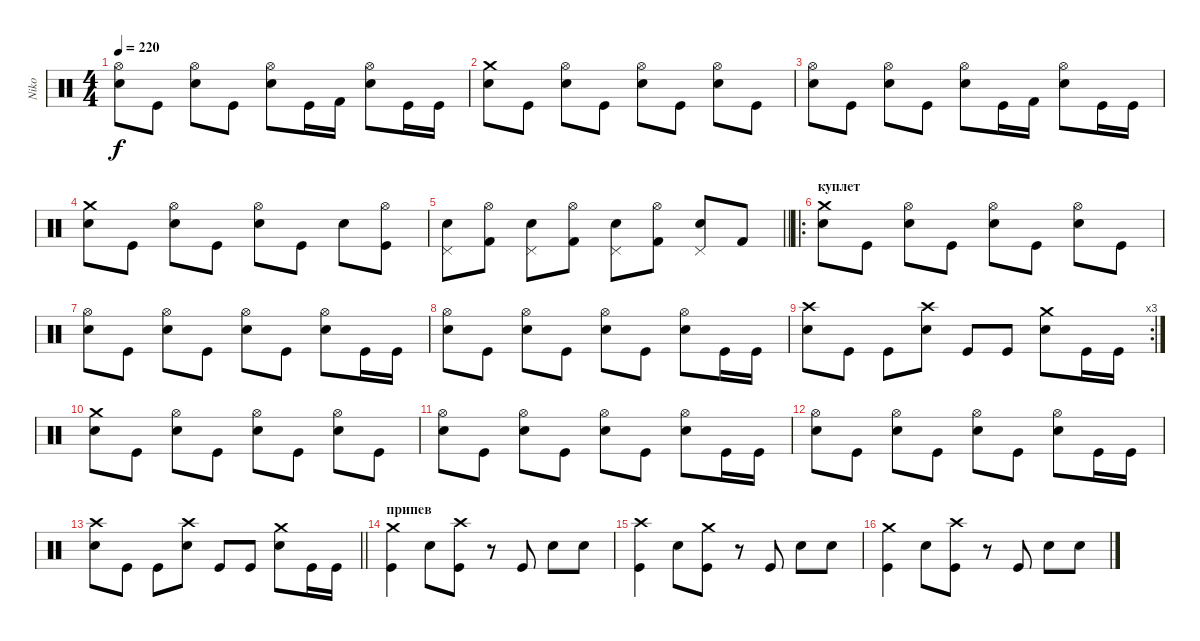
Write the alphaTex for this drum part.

\track ("Niko" "Niko") {instrument percussion}
\staff {score}
\articulation defaults
\ts (4 4)
\tempo 220
\clef neutral
\ks c
("Hi-Hat (open)" "Snare (hit) 2").8{dy f} "Kick (hit)".8 ("Hi-Hat (open)" "Snare (hit) 2").8 "Kick (hit)".8 ("Hi-Hat (open)" "Snare (hit) 2").8 "Kick (hit)".16 "Kick (hit) 2".16 ("Hi-Hat (open)" "Snare (hit) 2").8 "Kick (hit)".16 "Kick (hit)".16 |
("Crash medium (hit)" "Snare (hit) 2").8 "Kick (hit)".8 ("Hi-Hat (open)" "Snare (hit) 2").8 "Kick (hit)".8 ("Hi-Hat (open)" "Snare (hit) 2").8 "Kick (hit)".8 ("Hi-Hat (open)" "Snare (hit) 2").8 "Kick (hit)".8 |
("Hi-Hat (open)" "Snare (hit) 2").8 "Kick (hit)".8 ("Hi-Hat (open)" "Snare (hit) 2").8 "Kick (hit)".8 ("Hi-Hat (open)" "Snare (hit) 2").8 "Kick (hit)".16 "Kick (hit) 2".16 ("Hi-Hat (open)" "Snare (hit) 2").8 "Kick (hit)".16 "Kick (hit)".16 |
("Crash medium (hit)" "Snare (hit) 2").8 "Kick (hit)".8 ("Hi-Hat (open)" "Snare (hit) 2").8 "Kick (hit)".8 ("Hi-Hat (open)" "Snare (hit) 2").8 "Kick (hit)".8 "Snare (hit) 2".8 ("Hi-Hat (open)" "Kick (hit)").8 |
\barLineRight lightlight
("Snare (hit) 2" "Pedal Hi-Hat (hit)").8 ("Hi-Hat (open)" "Kick (hit) 2").8 ("Snare (hit) 2" "Pedal Hi-Hat (hit)").8 ("Hi-Hat (open)" "Kick (hit) 2").8 ("Snare (hit) 2" "Pedal Hi-Hat (hit)").8 ("Hi-Hat (open)" "Kick (hit) 2").8 ("Snare (hit) 2" "Pedal Hi-Hat (hit)").8 "Kick (hit) 2".8 |
\ro
\section ("" "куплет")
("Crash medium (hit)" "Snare (hit) 2").8 "Kick (hit)".8 ("Hi-Hat (open)" "Snare (hit) 2").8 "Kick (hit)".8 ("Hi-Hat (open)" "Snare (hit) 2").8 "Kick (hit)".8 ("Hi-Hat (open)" "Snare (hit) 2").8 "Kick (hit)".8 |
("Hi-Hat (open)" "Snare (hit) 2").8 "Kick (hit)".8 ("Hi-Hat (open)" "Snare (hit) 2").8 "Kick (hit)".8 ("Hi-Hat (open)" "Snare (hit) 2").8 "Kick (hit)".8 ("Hi-Hat (open)" "Snare (hit) 2").8 "Kick (hit)".16 "Kick (hit)".16 |
("Hi-Hat (open)" "Snare (hit) 2").8 "Kick (hit)".8 ("Hi-Hat (open)" "Snare (hit) 2").8 "Kick (hit)".8 ("Hi-Hat (open)" "Snare (hit) 2").8 "Kick (hit)".8 ("Hi-Hat (open)" "Snare (hit) 2").8 "Kick (hit)".16 "Kick (hit)".16 |
\rc 3
("Crash high (hit)" "Snare (hit) 2").8 "Kick (hit)".8 "Kick (hit)".8 ("Crash high (hit)" "Snare (hit) 2").8 "Kick (hit)".8 "Kick (hit)".8 ("Crash medium (hit)" "Snare (hit) 2").8 "Kick (hit)".16 "Kick (hit)".16 |
("Crash medium (hit)" "Snare (hit) 2").8 "Kick (hit)".8 ("Hi-Hat (open)" "Snare (hit) 2").8 "Kick (hit)".8 ("Hi-Hat (open)" "Snare (hit) 2").8 "Kick (hit)".8 ("Hi-Hat (open)" "Snare (hit) 2").8 "Kick (hit)".8 |
("Hi-Hat (open)" "Snare (hit) 2").8 "Kick (hit)".8 ("Hi-Hat (open)" "Snare (hit) 2").8 "Kick (hit)".8 ("Hi-Hat (open)" "Snare (hit) 2").8 "Kick (hit)".8 ("Hi-Hat (open)" "Snare (hit) 2").8 "Kick (hit)".16 "Kick (hit)".16 |
("Hi-Hat (open)" "Snare (hit) 2").8 "Kick (hit)".8 ("Hi-Hat (open)" "Snare (hit) 2").8 "Kick (hit)".8 ("Hi-Hat (open)" "Snare (hit) 2").8 "Kick (hit)".8 ("Hi-Hat (open)" "Snare (hit) 2").8 "Kick (hit)".16 "Kick (hit)".16 |
\barLineRight lightlight
("Crash high (hit)" "Snare (hit) 2").8 "Kick (hit)".8 "Kick (hit)".8 ("Crash high (hit)" "Snare (hit) 2").8 "Kick (hit)".8 "Kick (hit)".8 ("Crash medium (hit)" "Snare (hit) 2").8 "Kick (hit)".16 "Kick (hit)".16 |
\section ("" "припев")
("Crash medium (hit)" "Kick (hit)").4 "Snare (hit) 2".8 ("Crash high (hit)" "Kick (hit)").8 r.8 "Kick (hit)".8 "Snare (hit) 2".8 "Snare (hit) 2".8 |
("Crash high (hit)" "Kick (hit)").4 "Snare (hit) 2".8 ("Crash medium (hit)" "Kick (hit)").8 r.8 "Kick (hit)".8 "Snare (hit) 2".8 "Snare (hit) 2".8 |
("Crash medium (hit)" "Kick (hit)").4 "Snare (hit) 2".8 ("Crash high (hit)" "Kick (hit)").8 r.8 "Kick (hit)".8 "Snare (hit) 2".8 "Snare (hit) 2".8
